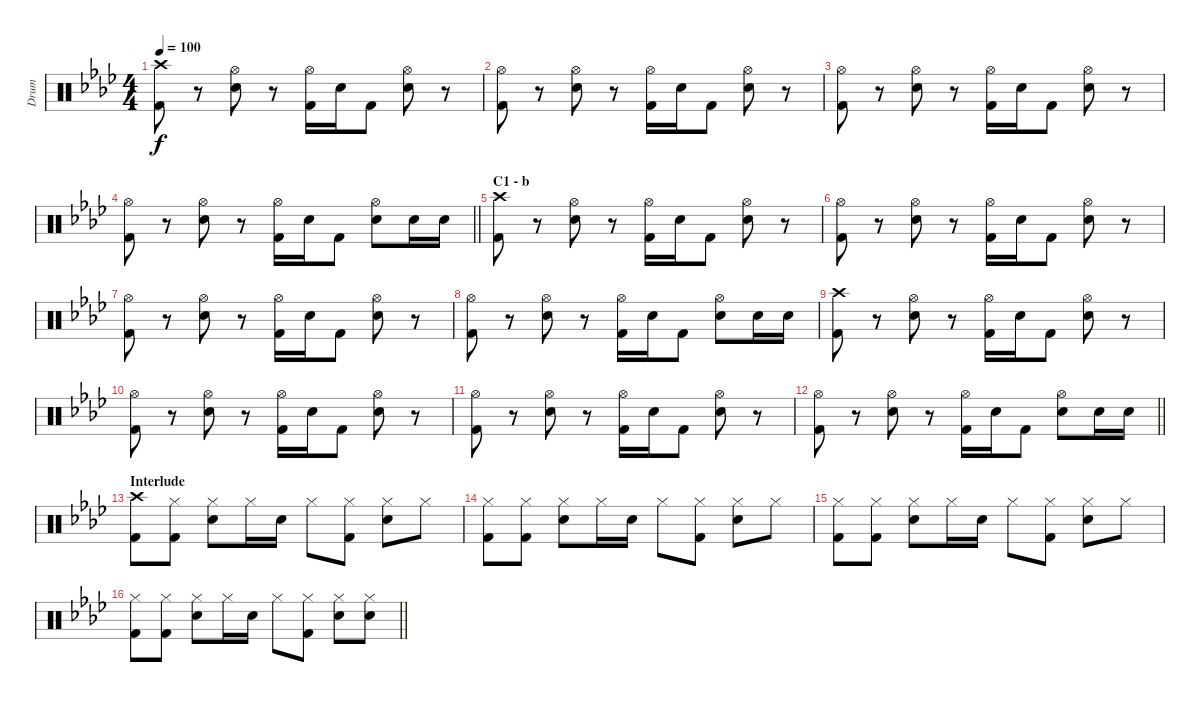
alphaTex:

\track ("Drum" "Drum") {instrument percussion}
\staff {score}
\articulation defaults
\ts (4 4)
\tempo 100
\clef neutral
\ks ab
("Crash high (hit)" "Kick (hit) 2").8{dy f} r.8 ("Hi-Hat (open)" "Snare (hit) 2").8 r.8 ("Hi-Hat (open)" "Kick (hit) 2").16 "Snare (hit) 2".16 "Kick (hit) 2".8 ("Hi-Hat (open)" "Snare (hit) 2").8 r.8 |
("Hi-Hat (open)" "Kick (hit) 2").8 r.8 ("Hi-Hat (open)" "Snare (hit) 2").8 r.8 ("Hi-Hat (open)" "Kick (hit) 2").16 "Snare (hit) 2".16 "Kick (hit) 2".8 ("Hi-Hat (open)" "Snare (hit) 2").8 r.8 |
("Hi-Hat (open)" "Kick (hit) 2").8 r.8 ("Hi-Hat (open)" "Snare (hit) 2").8 r.8 ("Hi-Hat (open)" "Kick (hit) 2").16 "Snare (hit) 2".16 "Kick (hit) 2".8 ("Hi-Hat (open)" "Snare (hit) 2").8 r.8 |
\barLineRight lightlight
("Hi-Hat (open)" "Kick (hit) 2").8 r.8 ("Hi-Hat (open)" "Snare (hit) 2").8 r.8 ("Hi-Hat (open)" "Kick (hit) 2").16 "Snare (hit) 2".16 "Kick (hit) 2".8 ("Hi-Hat (open)" "Snare (hit) 2").8 "Snare (hit) 2".16 "Snare (hit) 2".16 |
\section ("" "C1 - b")
("Crash high (hit)" "Kick (hit) 2").8 r.8 ("Hi-Hat (open)" "Snare (hit) 2").8 r.8 ("Hi-Hat (open)" "Kick (hit) 2").16 "Snare (hit) 2".16 "Kick (hit) 2".8 ("Hi-Hat (open)" "Snare (hit) 2").8 r.8 |
("Hi-Hat (open)" "Kick (hit) 2").8 r.8 ("Hi-Hat (open)" "Snare (hit) 2").8 r.8 ("Hi-Hat (open)" "Kick (hit) 2").16 "Snare (hit) 2".16 "Kick (hit) 2".8 ("Hi-Hat (open)" "Snare (hit) 2").8 r.8 |
("Hi-Hat (open)" "Kick (hit) 2").8 r.8 ("Hi-Hat (open)" "Snare (hit) 2").8 r.8 ("Hi-Hat (open)" "Kick (hit) 2").16 "Snare (hit) 2".16 "Kick (hit) 2".8 ("Hi-Hat (open)" "Snare (hit) 2").8 r.8 |
("Hi-Hat (open)" "Kick (hit) 2").8 r.8 ("Hi-Hat (open)" "Snare (hit) 2").8 r.8 ("Hi-Hat (open)" "Kick (hit) 2").16 "Snare (hit) 2".16 "Kick (hit) 2".8 ("Hi-Hat (open)" "Snare (hit) 2").8 "Snare (hit) 2".16 "Snare (hit) 2".16 |
("Crash high (hit)" "Kick (hit) 2").8 r.8 ("Hi-Hat (open)" "Snare (hit) 2").8 r.8 ("Hi-Hat (open)" "Kick (hit) 2").16 "Snare (hit) 2".16 "Kick (hit) 2".8 ("Hi-Hat (open)" "Snare (hit) 2").8 r.8 |
("Hi-Hat (open)" "Kick (hit) 2").8 r.8 ("Hi-Hat (open)" "Snare (hit) 2").8 r.8 ("Hi-Hat (open)" "Kick (hit) 2").16 "Snare (hit) 2".16 "Kick (hit) 2".8 ("Hi-Hat (open)" "Snare (hit) 2").8 r.8 |
("Hi-Hat (open)" "Kick (hit) 2").8 r.8 ("Hi-Hat (open)" "Snare (hit) 2").8 r.8 ("Hi-Hat (open)" "Kick (hit) 2").16 "Snare (hit) 2".16 "Kick (hit) 2".8 ("Hi-Hat (open)" "Snare (hit) 2").8 r.8 |
\barLineRight lightlight
("Hi-Hat (open)" "Kick (hit) 2").8 r.8 ("Hi-Hat (open)" "Snare (hit) 2").8 r.8 ("Hi-Hat (open)" "Kick (hit) 2").16 "Snare (hit) 2".16 "Kick (hit) 2".8 ("Hi-Hat (open)" "Snare (hit) 2").8 "Snare (hit) 2".16 "Snare (hit) 2".16 |
\section ("" "Interlude")
("Crash high (hit)" "Kick (hit) 2").8 ("Hi-Hat (closed)" "Kick (hit) 2").8 ("Hi-Hat (closed)" "Snare (hit) 2").8 "Hi-Hat (closed)".16 "Snare (hit) 2".16 "Hi-Hat (closed)".8 ("Hi-Hat (closed)" "Kick (hit) 2").8 ("Hi-Hat (closed)" "Snare (hit) 2").8 "Hi-Hat (closed)".8 |
("Hi-Hat (closed)" "Kick (hit) 2").8 ("Hi-Hat (closed)" "Kick (hit) 2").8 ("Hi-Hat (closed)" "Snare (hit) 2").8 "Hi-Hat (closed)".16 "Snare (hit) 2".16 "Hi-Hat (closed)".8 ("Hi-Hat (closed)" "Kick (hit) 2").8 ("Hi-Hat (closed)" "Snare (hit) 2").8 "Hi-Hat (closed)".8 |
("Hi-Hat (closed)" "Kick (hit) 2").8 ("Hi-Hat (closed)" "Kick (hit) 2").8 ("Hi-Hat (closed)" "Snare (hit) 2").8 "Hi-Hat (closed)".16 "Snare (hit) 2".16 "Hi-Hat (closed)".8 ("Hi-Hat (closed)" "Kick (hit) 2").8 ("Hi-Hat (closed)" "Snare (hit) 2").8 "Hi-Hat (closed)".8 |
\barLineRight lightlight
("Hi-Hat (closed)" "Kick (hit) 2").8 ("Hi-Hat (closed)" "Kick (hit) 2").8 ("Hi-Hat (closed)" "Snare (hit) 2").8 "Hi-Hat (closed)".16 "Snare (hit) 2".16 "Hi-Hat (closed)".8 ("Hi-Hat (closed)" "Kick (hit) 2").8 ("Hi-Hat (closed)" "Snare (hit) 2").8 ("Hi-Hat (closed)" "Snare (hit) 2").8
